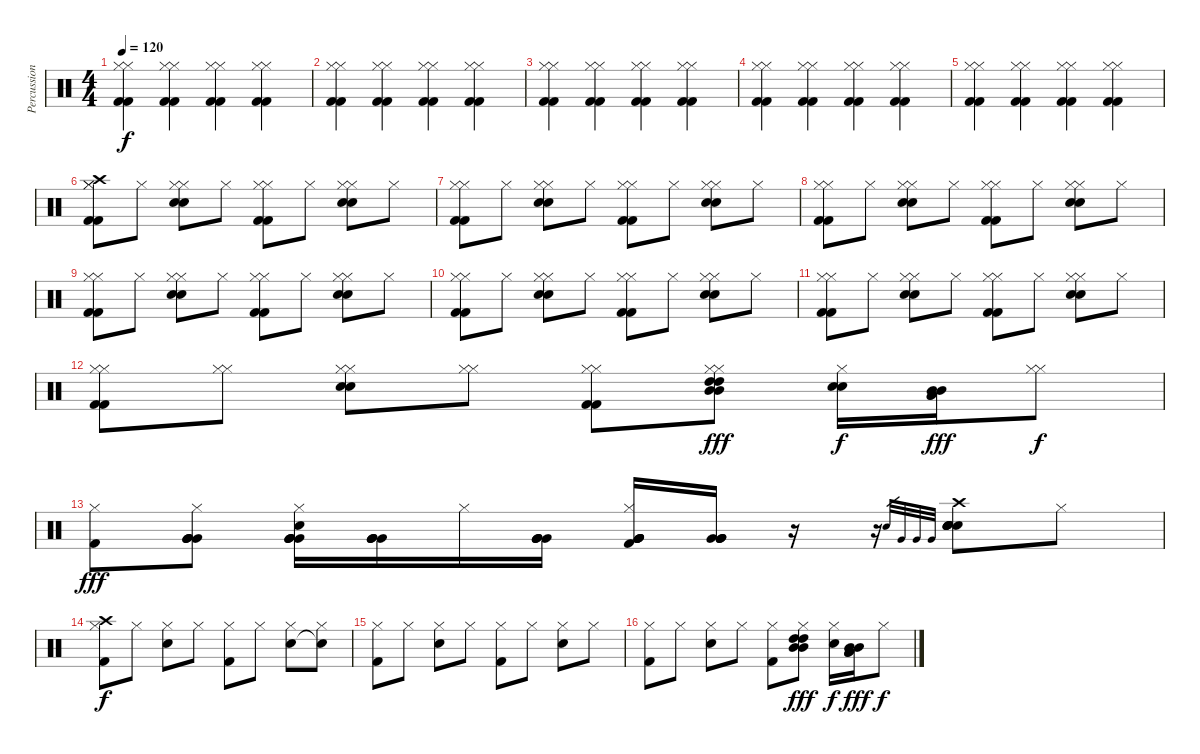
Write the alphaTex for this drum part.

\track ("Percussion" "Percussion") {instrument percussion}
\staff {score}
\articulation defaults
\ts (4 4)
\tempo 120
\clef neutral
\ks c
("Kick (hit) 2" "Kick (hit) 2" "Hi-Hat (closed)" "Hi-Hat (closed)").4{dy f} ("Kick (hit) 2" "Kick (hit) 2" "Hi-Hat (closed)" "Hi-Hat (closed)").4 ("Kick (hit) 2" "Kick (hit) 2" "Hi-Hat (closed)" "Hi-Hat (closed)").4 ("Kick (hit) 2" "Kick (hit) 2" "Hi-Hat (closed)" "Hi-Hat (closed)").4 |
("Kick (hit) 2" "Kick (hit) 2" "Hi-Hat (closed)" "Hi-Hat (closed)").4 ("Kick (hit) 2" "Kick (hit) 2" "Hi-Hat (closed)" "Hi-Hat (closed)").4 ("Kick (hit) 2" "Kick (hit) 2" "Hi-Hat (closed)" "Hi-Hat (closed)").4 ("Kick (hit) 2" "Kick (hit) 2" "Hi-Hat (closed)" "Hi-Hat (closed)").4 |
("Kick (hit) 2" "Kick (hit) 2" "Hi-Hat (closed)" "Hi-Hat (closed)").4 ("Kick (hit) 2" "Kick (hit) 2" "Hi-Hat (closed)" "Hi-Hat (closed)").4 ("Kick (hit) 2" "Kick (hit) 2" "Hi-Hat (closed)" "Hi-Hat (closed)").4 ("Kick (hit) 2" "Kick (hit) 2" "Hi-Hat (closed)" "Hi-Hat (closed)").4 |
("Kick (hit) 2" "Kick (hit) 2" "Hi-Hat (closed)" "Hi-Hat (closed)").4 ("Kick (hit) 2" "Kick (hit) 2" "Hi-Hat (closed)" "Hi-Hat (closed)").4 ("Kick (hit) 2" "Kick (hit) 2" "Hi-Hat (closed)" "Hi-Hat (closed)").4 ("Kick (hit) 2" "Kick (hit) 2" "Hi-Hat (closed)" "Hi-Hat (closed)").4 |
("Kick (hit) 2" "Kick (hit) 2" "Hi-Hat (closed)" "Hi-Hat (closed)").4 ("Kick (hit) 2" "Kick (hit) 2" "Hi-Hat (closed)" "Hi-Hat (closed)").4 ("Kick (hit) 2" "Kick (hit) 2" "Hi-Hat (closed)" "Hi-Hat (closed)").4 ("Kick (hit) 2" "Kick (hit) 2" "Hi-Hat (closed)" "Hi-Hat (closed)").4 |
("Kick (hit) 2" "Kick (hit) 2" "Hi-Hat (closed)" "Hi-Hat (closed)" "Crash high (hit)").8 "Hi-Hat (closed)".8 ("Electric Snare (hit)" "Electric Snare (hit)" "Hi-Hat (closed)" "Hi-Hat (closed)").8 "Hi-Hat (closed)".8 ("Kick (hit) 2" "Kick (hit) 2" "Hi-Hat (closed)" "Hi-Hat (closed)").8 "Hi-Hat (closed)".8 ("Electric Snare (hit)" "Electric Snare (hit)" "Hi-Hat (closed)" "Hi-Hat (closed)").8 "Hi-Hat (closed)".8 |
("Kick (hit) 2" "Kick (hit) 2" "Hi-Hat (closed)" "Hi-Hat (closed)").8 "Hi-Hat (closed)".8 ("Electric Snare (hit)" "Electric Snare (hit)" "Hi-Hat (closed)" "Hi-Hat (closed)").8 "Hi-Hat (closed)".8 ("Kick (hit) 2" "Kick (hit) 2" "Hi-Hat (closed)" "Hi-Hat (closed)").8 "Hi-Hat (closed)".8 ("Electric Snare (hit)" "Electric Snare (hit)" "Hi-Hat (closed)" "Hi-Hat (closed)").8 "Hi-Hat (closed)".8 |
("Kick (hit) 2" "Kick (hit) 2" "Hi-Hat (closed)" "Hi-Hat (closed)").8 "Hi-Hat (closed)".8 ("Electric Snare (hit)" "Electric Snare (hit)" "Hi-Hat (closed)" "Hi-Hat (closed)").8 "Hi-Hat (closed)".8 ("Kick (hit) 2" "Kick (hit) 2" "Hi-Hat (closed)" "Hi-Hat (closed)").8 "Hi-Hat (closed)".8 ("Electric Snare (hit)" "Electric Snare (hit)" "Hi-Hat (closed)" "Hi-Hat (closed)").8 "Hi-Hat (closed)".8 |
("Kick (hit) 2" "Kick (hit) 2" "Hi-Hat (closed)" "Hi-Hat (closed)").8 "Hi-Hat (closed)".8 ("Electric Snare (hit)" "Electric Snare (hit)" "Hi-Hat (closed)" "Hi-Hat (closed)").8 "Hi-Hat (closed)".8 ("Kick (hit) 2" "Kick (hit) 2" "Hi-Hat (closed)" "Hi-Hat (closed)").8 "Hi-Hat (closed)".8 ("Electric Snare (hit)" "Electric Snare (hit)" "Hi-Hat (closed)" "Hi-Hat (closed)").8 "Hi-Hat (closed)".8 |
("Kick (hit) 2" "Kick (hit) 2" "Hi-Hat (closed)" "Hi-Hat (closed)").8 "Hi-Hat (closed)".8 ("Electric Snare (hit)" "Electric Snare (hit)" "Hi-Hat (closed)" "Hi-Hat (closed)").8 "Hi-Hat (closed)".8 ("Kick (hit) 2" "Kick (hit) 2" "Hi-Hat (closed)" "Hi-Hat (closed)").8 "Hi-Hat (closed)".8 ("Electric Snare (hit)" "Electric Snare (hit)" "Hi-Hat (closed)" "Hi-Hat (closed)").8 "Hi-Hat (closed)".8 |
("Kick (hit) 2" "Kick (hit) 2" "Hi-Hat (closed)" "Hi-Hat (closed)").8 "Hi-Hat (closed)".8 ("Electric Snare (hit)" "Electric Snare (hit)" "Hi-Hat (closed)" "Hi-Hat (closed)").8 "Hi-Hat (closed)".8 ("Kick (hit) 2" "Kick (hit) 2" "Hi-Hat (closed)" "Hi-Hat (closed)").8 "Hi-Hat (closed)".8 ("Electric Snare (hit)" "Electric Snare (hit)" "Hi-Hat (closed)" "Hi-Hat (closed)").8 "Hi-Hat (closed)".8 |
("Hi-Hat (closed)" "Kick (hit) 2" "Kick (hit) 2" "Hi-Hat (closed)").8 ("Hi-Hat (closed)" "Hi-Hat (closed)").8 ("Hi-Hat (closed)" "Electric Snare (hit)" "Electric Snare (hit)" "Hi-Hat (closed)").8 ("Hi-Hat (closed)" "Hi-Hat (closed)").8 ("Hi-Hat (closed)" "Kick (hit) 2" "Kick (hit) 2" "Hi-Hat (closed)").8 ("Hi-Hat (closed)" "Hi-Hat (closed)" "High Tom (hit)" "High Tom (hit)" "Mid Tom (hit)" "Mid Tom (hit)").8{dy fff} ("Hi-Hat (closed)" "Electric Snare (hit)" "Electric Snare (hit)").16{dy f} ("Mid Tom (hit)" "Mid Tom (hit)" "Low Tom (hit)" "Low Tom (hit)").16{dy fff} ("Hi-Hat (closed)" "Hi-Hat (closed)").8{dy f} |
("Hi-Hat (closed)" "Kick (hit) 2").8{dy fff} ("Hi-Hat (closed)" "Very Low Tom (hit)" "Very Low Tom (hit)" "Very Low Tom (hit)" "Very Low Tom (hit)").8 ("Hi-Hat (closed)" "Electric Snare (hit)" "Very Low Tom (hit)" "Very Low Tom (hit)" "Very Low Tom (hit)" "Very Low Tom (hit)").16 ("Very Low Tom (hit)" "Very Low Tom (hit)" "Very Low Tom (hit)" "Very Low Tom (hit)").16 "Hi-Hat (closed)".16 ("Very Low Tom (hit)" "Very Low Tom (hit)" "Very Low Tom (hit)" "Very Low Tom (hit)").16 ("Hi-Hat (closed)" "Kick (hit) 2" "Very Low Tom (hit)" "Very Low Tom (hit)" "Very Low Tom (hit)" "Very Low Tom (hit)").16 ("Very Low Tom (hit)" "Very Low Tom (hit)" "Very Low Tom (hit)" "Very Low Tom (hit)").16 r.16 r.16 "Snare (hit)".32{gr} "Very Low Tom (hit)".32{gr} "Very Low Tom (hit)".32{gr} "Very Low Tom (hit)".32{gr} ("Crash high (hit)" "Electric Snare (hit)" "Electric Snare (hit)" "Electric Snare (hit)" "Electric Snare (hit)" "Electric Snare (hit)").8 "Hi-Hat (closed)".8 |
("Hi-Hat (closed)" "Kick (hit) 2" "Crash high (hit)").8{dy f} "Hi-Hat (closed)".8 ("Hi-Hat (closed)" "Electric Snare (hit)").8 "Hi-Hat (closed)".8 ("Hi-Hat (closed)" "Kick (hit) 2").8 "Hi-Hat (closed)".8 ("Hi-Hat (closed)" "Electric Snare (hit)").8 ("Hi-Hat (closed)" "Snare (hit)"{t}).8 |
("Hi-Hat (closed)" "Kick (hit) 2").8 "Hi-Hat (closed)".8 ("Hi-Hat (closed)" "Electric Snare (hit)").8 "Hi-Hat (closed)".8 ("Hi-Hat (closed)" "Kick (hit) 2").8 "Hi-Hat (closed)".8 ("Hi-Hat (closed)" "Electric Snare (hit)").8 "Hi-Hat (closed)".8 |
("Hi-Hat (closed)" "Kick (hit) 2").8 "Hi-Hat (closed)".8 ("Hi-Hat (closed)" "Electric Snare (hit)").8 "Hi-Hat (closed)".8 ("Hi-Hat (closed)" "Kick (hit) 2").8 ("Hi-Hat (closed)" "High Tom (hit)" "High Tom (hit)" "Mid Tom (hit)" "Mid Tom (hit)").8{dy fff} ("Hi-Hat (closed)" "Electric Snare (hit)").16{dy f} ("Mid Tom (hit)" "Mid Tom (hit)" "Low Tom (hit)" "Low Tom (hit)").16{dy fff} "Hi-Hat (closed)".8{dy f}
